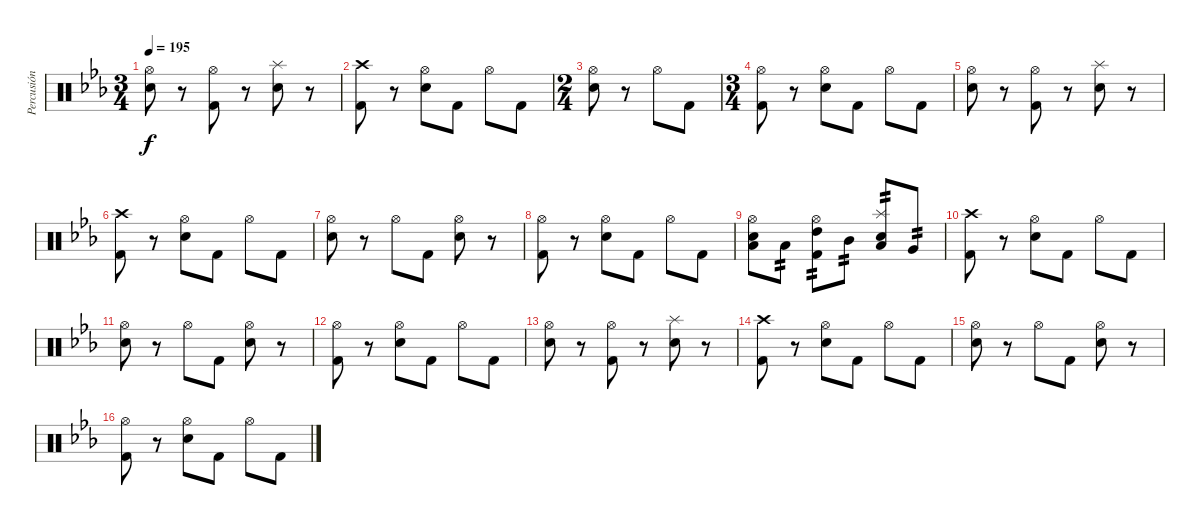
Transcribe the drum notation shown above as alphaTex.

\track ("Percusión" "Percusión") {instrument percussion}
\staff {score}
\articulation defaults
\ts (3 4)
\tempo 195
\clef neutral
\ks eb
("Hi-Hat (open)" "Snare (hit) 2").8{dy f} r.8 ("Hi-Hat (open)" "Kick (hit) 2").8 r.8 ("Splash (hit)" "Snare (hit) 2").8 r.8 |
("Crash high (hit)" "Kick (hit) 2").8 r.8 ("Hi-Hat (open)" "Snare (hit) 2").8 "Kick (hit) 2".8 "Hi-Hat (open)".8 "Kick (hit) 2".8 |
\ts (2 4)
("Hi-Hat (open)" "Snare (hit) 2").8 r.8 "Hi-Hat (open)".8 "Kick (hit) 2".8 |
\ts (3 4)
("Hi-Hat (open)" "Kick (hit) 2").8 r.8 ("Hi-Hat (open)" "Snare (hit) 2").8 "Kick (hit) 2".8 "Hi-Hat (open)".8 "Kick (hit) 2".8 |
("Hi-Hat (open)" "Snare (hit) 2").8 r.8 ("Hi-Hat (open)" "Kick (hit) 2").8 r.8 ("Splash (hit)" "Snare (hit) 2").8 r.8 |
("Crash high (hit)" "Kick (hit) 2").8 r.8 ("Hi-Hat (open)" "Snare (hit) 2").8 "Kick (hit) 2".8 "Hi-Hat (open)".8 "Kick (hit) 2".8 |
("Hi-Hat (open)" "Snare (hit) 2").8 r.8 "Hi-Hat (open)".8 "Kick (hit) 2".8 ("Hi-Hat (open)" "Snare (hit) 2").8 r.8 |
("Hi-Hat (open)" "Kick (hit) 2").8 r.8 ("Hi-Hat (open)" "Snare (hit) 2").8 "Kick (hit) 2".8 "Hi-Hat (open)".8 "Kick (hit) 2".8 |
("Hi-Hat (open)" "Low Floor Tom (hit)" "Snare (hit) 2").8 "Low Floor Tom (hit)".8{tp 2} ("Hi-Hat (open)" "High Tom (hit)" "Kick (hit) 2").8{tp 2} "Mid Tom (hit)".8{tp 2} ("Splash (hit)" "Low Tom (hit)" "Snare (hit) 2").8{tp 2} "Very Low Tom (hit)".8{tp 2} |
("Crash high (hit)" "Kick (hit) 2").8 r.8 ("Hi-Hat (open)" "Snare (hit) 2").8 "Kick (hit) 2".8 "Hi-Hat (open)".8 "Kick (hit) 2".8 |
("Hi-Hat (open)" "Snare (hit) 2").8 r.8 "Hi-Hat (open)".8 "Kick (hit) 2".8 ("Hi-Hat (open)" "Snare (hit) 2").8 r.8 |
("Hi-Hat (open)" "Kick (hit) 2").8 r.8 ("Hi-Hat (open)" "Snare (hit) 2").8 "Kick (hit) 2".8 "Hi-Hat (open)".8 "Kick (hit) 2".8 |
("Hi-Hat (open)" "Snare (hit) 2").8 r.8 ("Hi-Hat (open)" "Kick (hit) 2").8 r.8 ("Splash (hit)" "Snare (hit) 2").8 r.8 |
("Crash high (hit)" "Kick (hit) 2").8 r.8 ("Hi-Hat (open)" "Snare (hit) 2").8 "Kick (hit) 2".8 "Hi-Hat (open)".8 "Kick (hit) 2".8 |
("Hi-Hat (open)" "Snare (hit) 2").8 r.8 "Hi-Hat (open)".8 "Kick (hit) 2".8 ("Hi-Hat (open)" "Snare (hit) 2").8 r.8 |
("Hi-Hat (open)" "Kick (hit) 2").8 r.8 ("Hi-Hat (open)" "Snare (hit) 2").8 "Kick (hit) 2".8 "Hi-Hat (open)".8 "Kick (hit) 2".8
